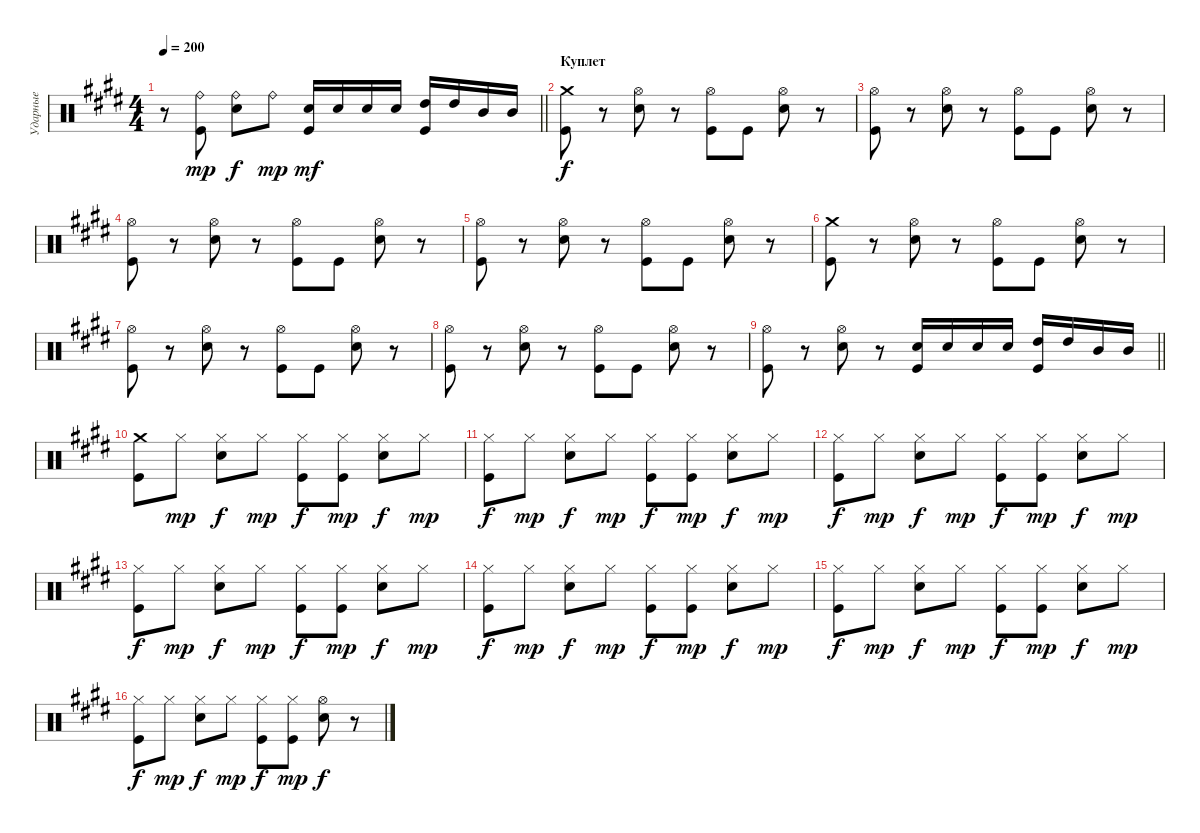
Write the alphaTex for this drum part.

\track ("Ударные" "Ударные") {instrument percussion}
\staff {score}
\articulation defaults
\ts (4 4)
\tempo 200
\clef neutral
\barLineRight lightlight
\ks c#minor
r.8{dy f} ("Ride (bell)" "Kick (hit)").8{dy mp} ("Ride (bell)" "Electric Snare (hit)").8{dy f} "Ride (bell)".8{dy mp} ("Electric Snare (hit)" "Kick (hit)").16{dy mf} "Electric Snare (hit)".16 "Electric Snare (hit)".16 "Electric Snare (hit)".16 ("High Tom (hit)" "Kick (hit)").16 "High Tom (hit)".16 "Mid Tom (hit)".16 "Mid Tom (hit)".16 |
\section ("" "Куплет")
("Crash medium (hit)" "Kick (hit)").8{dy f} r.8 ("Hi-Hat (open)" "Electric Snare (hit)").8 r.8 ("Hi-Hat (open)" "Kick (hit)").8 "Kick (hit)".8 ("Hi-Hat (open)" "Electric Snare (hit)").8 r.8 |
("Hi-Hat (open)" "Kick (hit)").8 r.8 ("Hi-Hat (open)" "Electric Snare (hit)").8 r.8 ("Hi-Hat (open)" "Kick (hit)").8 "Kick (hit)".8 ("Hi-Hat (open)" "Electric Snare (hit)").8 r.8 |
("Hi-Hat (open)" "Kick (hit)").8 r.8 ("Hi-Hat (open)" "Electric Snare (hit)").8 r.8 ("Hi-Hat (open)" "Kick (hit)").8 "Kick (hit)".8 ("Hi-Hat (open)" "Electric Snare (hit)").8 r.8 |
("Hi-Hat (open)" "Kick (hit)").8 r.8 ("Hi-Hat (open)" "Electric Snare (hit)").8 r.8 ("Hi-Hat (open)" "Kick (hit)").8 "Kick (hit)".8 ("Hi-Hat (open)" "Electric Snare (hit)").8 r.8 |
("Crash medium (hit)" "Kick (hit)").8 r.8 ("Hi-Hat (open)" "Electric Snare (hit)").8 r.8 ("Hi-Hat (open)" "Kick (hit)").8 "Kick (hit)".8 ("Hi-Hat (open)" "Electric Snare (hit)").8 r.8 |
("Hi-Hat (open)" "Kick (hit)").8 r.8 ("Hi-Hat (open)" "Electric Snare (hit)").8 r.8 ("Hi-Hat (open)" "Kick (hit)").8 "Kick (hit)".8 ("Hi-Hat (open)" "Electric Snare (hit)").8 r.8 |
("Hi-Hat (open)" "Kick (hit)").8 r.8 ("Hi-Hat (open)" "Electric Snare (hit)").8 r.8 ("Hi-Hat (open)" "Kick (hit)").8 "Kick (hit)".8 ("Hi-Hat (open)" "Electric Snare (hit)").8 r.8 |
\barLineRight lightlight
("Hi-Hat (open)" "Kick (hit)").8 r.8 ("Hi-Hat (open)" "Electric Snare (hit)").8 r.8 ("Electric Snare (hit)" "Kick (hit)").16 "Electric Snare (hit)".16 "Electric Snare (hit)".16 "Electric Snare (hit)".16 ("High Tom (hit)" "Kick (hit)").16 "High Tom (hit)".16 "Mid Tom (hit)".16 "Mid Tom (hit)".16 |
\section ("" " ")
("Crash medium (hit)" "Kick (hit)").8 "Hi-Hat (closed)".8{dy mp} ("Hi-Hat (closed)" "Electric Snare (hit)").8{dy f} "Hi-Hat (closed)".8{dy mp} ("Hi-Hat (closed)" "Kick (hit)").8{dy f} ("Hi-Hat (closed)" "Kick (hit)").8{dy mp} ("Hi-Hat (closed)" "Electric Snare (hit)").8{dy f} "Hi-Hat (closed)".8{dy mp} |
("Hi-Hat (closed)" "Kick (hit)").8{dy f} "Hi-Hat (closed)".8{dy mp} ("Hi-Hat (closed)" "Electric Snare (hit)").8{dy f} "Hi-Hat (closed)".8{dy mp} ("Hi-Hat (closed)" "Kick (hit)").8{dy f} ("Hi-Hat (closed)" "Kick (hit)").8{dy mp} ("Hi-Hat (closed)" "Electric Snare (hit)").8{dy f} "Hi-Hat (closed)".8{dy mp} |
("Hi-Hat (closed)" "Kick (hit)").8{dy f} "Hi-Hat (closed)".8{dy mp} ("Hi-Hat (closed)" "Electric Snare (hit)").8{dy f} "Hi-Hat (closed)".8{dy mp} ("Hi-Hat (closed)" "Kick (hit)").8{dy f} ("Hi-Hat (closed)" "Kick (hit)").8{dy mp} ("Hi-Hat (closed)" "Electric Snare (hit)").8{dy f} "Hi-Hat (closed)".8{dy mp} |
("Hi-Hat (closed)" "Kick (hit)").8{dy f} "Hi-Hat (closed)".8{dy mp} ("Hi-Hat (closed)" "Electric Snare (hit)").8{dy f} "Hi-Hat (closed)".8{dy mp} ("Hi-Hat (closed)" "Kick (hit)").8{dy f} ("Hi-Hat (closed)" "Kick (hit)").8{dy mp} ("Hi-Hat (closed)" "Electric Snare (hit)").8{dy f} "Hi-Hat (closed)".8{dy mp} |
("Hi-Hat (closed)" "Kick (hit)").8{dy f} "Hi-Hat (closed)".8{dy mp} ("Hi-Hat (closed)" "Electric Snare (hit)").8{dy f} "Hi-Hat (closed)".8{dy mp} ("Hi-Hat (closed)" "Kick (hit)").8{dy f} ("Hi-Hat (closed)" "Kick (hit)").8{dy mp} ("Hi-Hat (closed)" "Electric Snare (hit)").8{dy f} "Hi-Hat (closed)".8{dy mp} |
("Hi-Hat (closed)" "Kick (hit)").8{dy f} "Hi-Hat (closed)".8{dy mp} ("Hi-Hat (closed)" "Electric Snare (hit)").8{dy f} "Hi-Hat (closed)".8{dy mp} ("Hi-Hat (closed)" "Kick (hit)").8{dy f} ("Hi-Hat (closed)" "Kick (hit)").8{dy mp} ("Hi-Hat (closed)" "Electric Snare (hit)").8{dy f} "Hi-Hat (closed)".8{dy mp} |
("Hi-Hat (closed)" "Kick (hit)").8{dy f} "Hi-Hat (closed)".8{dy mp} ("Hi-Hat (closed)" "Electric Snare (hit)").8{dy f} "Hi-Hat (closed)".8{dy mp} ("Hi-Hat (closed)" "Kick (hit)").8{dy f} ("Hi-Hat (closed)" "Kick (hit)").8{dy mp} ("Hi-Hat (open)" "Electric Snare (hit)").8{dy f} r.8
